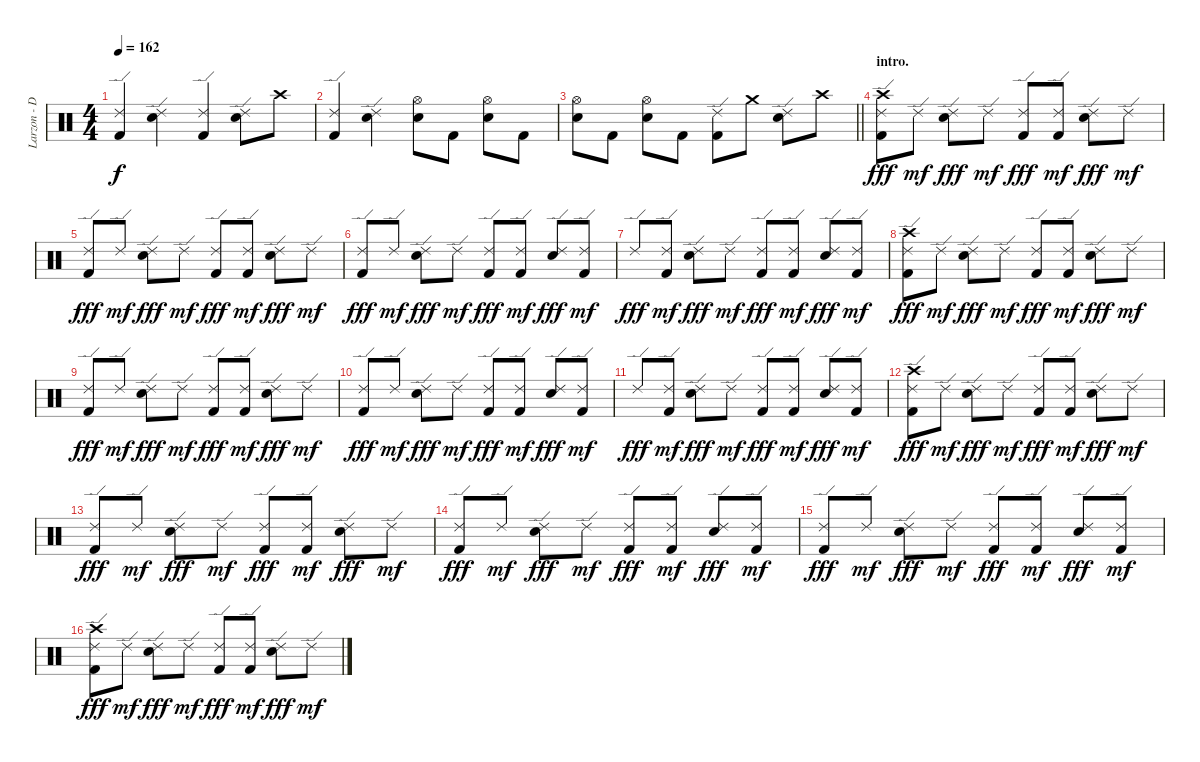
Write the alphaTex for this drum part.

\track ("Larzon - Drums" "Larzon - D") {instrument percussion}
\staff {score}
\articulation defaults
\ts (4 4)
\tempo 162
\clef neutral
\ks c
("Kick (hit) 2" "Ride (edge) 2").4{dy f} ("Electric Snare (hit)" "Ride (edge) 2").4 ("Kick (hit) 2" "Ride (edge) 2").4 ("Electric Snare (hit)" "Ride (edge) 2").8 "Crash high (hit)".8 |
("Kick (hit) 2" "Ride (edge) 2").4 ("Electric Snare (hit)" "Ride (edge) 2").4 ("Electric Snare (hit)" "Hi-Hat (open)").8 "Kick (hit) 2".8 ("Electric Snare (hit)" "Hi-Hat (open)").8 "Kick (hit) 2".8 |
\barLineRight lightlight
("Electric Snare (hit)" "Hi-Hat (open)").8 "Kick (hit) 2".8 ("Electric Snare (hit)" "Hi-Hat (open)").8 "Kick (hit) 2".8 ("Kick (hit) 2" "Ride (edge) 2").8 "Crash medium (hit)".8 ("Electric Snare (hit)" "Ride (edge) 2").8 "Crash high (hit)".8 |
\section ("" "intro.")
("Kick (hit) 2" "Crash high (hit)" "Ride (edge) 2").8{dy fff} "Ride (edge) 2".8{dy mf} ("Electric Snare (hit)" "Ride (edge) 2").8{dy fff} "Ride (edge) 2".8{dy mf} ("Kick (hit) 2" "Ride (edge) 2").8{dy fff} ("Kick (hit) 2" "Ride (edge) 2").8{dy mf} ("Electric Snare (hit)" "Ride (edge) 2").8{dy fff} "Ride (edge) 2".8{dy mf} |
("Kick (hit) 2" "Ride (edge) 2").8{dy fff} "Ride (edge) 2".8{dy mf} ("Electric Snare (hit)" "Ride (edge) 2").8{dy fff} "Ride (edge) 2".8{dy mf} ("Kick (hit) 2" "Ride (edge) 2").8{dy fff} ("Kick (hit) 2" "Ride (edge) 2").8{dy mf} ("Electric Snare (hit)" "Ride (edge) 2").8{dy fff} "Ride (edge) 2".8{dy mf} |
("Kick (hit) 2" "Ride (edge) 2").8{dy fff} "Ride (edge) 2".8{dy mf} ("Electric Snare (hit)" "Ride (edge) 2").8{dy fff} "Ride (edge) 2".8{dy mf} ("Kick (hit) 2" "Ride (edge) 2").8{dy fff} ("Kick (hit) 2" "Ride (edge) 2").8{dy mf} ("Electric Snare (hit)" "Ride (edge) 2").8{dy fff} ("Kick (hit) 2" "Ride (edge) 2").8{dy mf} |
"Ride (edge) 2".8{dy fff} ("Kick (hit) 2" "Ride (edge) 2").8{dy mf} ("Electric Snare (hit)" "Ride (edge) 2").8{dy fff} "Ride (edge) 2".8{dy mf} ("Kick (hit) 2" "Ride (edge) 2").8{dy fff} ("Kick (hit) 2" "Ride (edge) 2").8{dy mf} ("Electric Snare (hit)" "Ride (edge) 2").8{dy fff} ("Kick (hit) 2" "Ride (edge) 2").8{dy mf} |
("Kick (hit) 2" "Crash high (hit)" "Ride (edge) 2").8{dy fff} "Ride (edge) 2".8{dy mf} ("Electric Snare (hit)" "Ride (edge) 2").8{dy fff} "Ride (edge) 2".8{dy mf} ("Kick (hit) 2" "Ride (edge) 2").8{dy fff} ("Kick (hit) 2" "Ride (edge) 2").8{dy mf} ("Electric Snare (hit)" "Ride (edge) 2").8{dy fff} "Ride (edge) 2".8{dy mf} |
("Kick (hit) 2" "Ride (edge) 2").8{dy fff} "Ride (edge) 2".8{dy mf} ("Electric Snare (hit)" "Ride (edge) 2").8{dy fff} "Ride (edge) 2".8{dy mf} ("Kick (hit) 2" "Ride (edge) 2").8{dy fff} ("Kick (hit) 2" "Ride (edge) 2").8{dy mf} ("Electric Snare (hit)" "Ride (edge) 2").8{dy fff} "Ride (edge) 2".8{dy mf} |
("Kick (hit) 2" "Ride (edge) 2").8{dy fff} "Ride (edge) 2".8{dy mf} ("Electric Snare (hit)" "Ride (edge) 2").8{dy fff} "Ride (edge) 2".8{dy mf} ("Kick (hit) 2" "Ride (edge) 2").8{dy fff} ("Kick (hit) 2" "Ride (edge) 2").8{dy mf} ("Electric Snare (hit)" "Ride (edge) 2").8{dy fff} ("Kick (hit) 2" "Ride (edge) 2").8{dy mf} |
"Ride (edge) 2".8{dy fff} ("Kick (hit) 2" "Ride (edge) 2").8{dy mf} ("Electric Snare (hit)" "Ride (edge) 2").8{dy fff} "Ride (edge) 2".8{dy mf} ("Kick (hit) 2" "Ride (edge) 2").8{dy fff} ("Kick (hit) 2" "Ride (edge) 2").8{dy mf} ("Electric Snare (hit)" "Ride (edge) 2").8{dy fff} ("Kick (hit) 2" "Ride (edge) 2").8{dy mf} |
("Kick (hit) 2" "Crash high (hit)" "Ride (edge) 2").8{dy fff} "Ride (edge) 2".8{dy mf} ("Electric Snare (hit)" "Ride (edge) 2").8{dy fff} "Ride (edge) 2".8{dy mf} ("Kick (hit) 2" "Ride (edge) 2").8{dy fff} ("Kick (hit) 2" "Ride (edge) 2").8{dy mf} ("Electric Snare (hit)" "Ride (edge) 2").8{dy fff} "Ride (edge) 2".8{dy mf} |
("Kick (hit) 2" "Ride (edge) 2").8{dy fff} "Ride (edge) 2".8{dy mf} ("Electric Snare (hit)" "Ride (edge) 2").8{dy fff} "Ride (edge) 2".8{dy mf} ("Kick (hit) 2" "Ride (edge) 2").8{dy fff} ("Kick (hit) 2" "Ride (edge) 2").8{dy mf} ("Electric Snare (hit)" "Ride (edge) 2").8{dy fff} "Ride (edge) 2".8{dy mf} |
("Kick (hit) 2" "Ride (edge) 2").8{dy fff} "Ride (edge) 2".8{dy mf} ("Electric Snare (hit)" "Ride (edge) 2").8{dy fff} "Ride (edge) 2".8{dy mf} ("Kick (hit) 2" "Ride (edge) 2").8{dy fff} ("Kick (hit) 2" "Ride (edge) 2").8{dy mf} ("Electric Snare (hit)" "Ride (edge) 2").8{dy fff} ("Kick (hit) 2" "Ride (edge) 2").8{dy mf} |
("Kick (hit) 2" "Ride (edge) 2").8{dy fff} "Ride (edge) 2".8{dy mf} ("Electric Snare (hit)" "Ride (edge) 2").8{dy fff} "Ride (edge) 2".8{dy mf} ("Kick (hit) 2" "Ride (edge) 2").8{dy fff} ("Kick (hit) 2" "Ride (edge) 2").8{dy mf} ("Electric Snare (hit)" "Ride (edge) 2").8{dy fff} ("Kick (hit) 2" "Ride (edge) 2").8{dy mf} |
("Kick (hit) 2" "Crash high (hit)" "Ride (edge) 2").8{dy fff} "Ride (edge) 2".8{dy mf} ("Electric Snare (hit)" "Ride (edge) 2").8{dy fff} "Ride (edge) 2".8{dy mf} ("Kick (hit) 2" "Ride (edge) 2").8{dy fff} ("Kick (hit) 2" "Ride (edge) 2").8{dy mf} ("Electric Snare (hit)" "Ride (edge) 2").8{dy fff} "Ride (edge) 2".8{dy mf}
